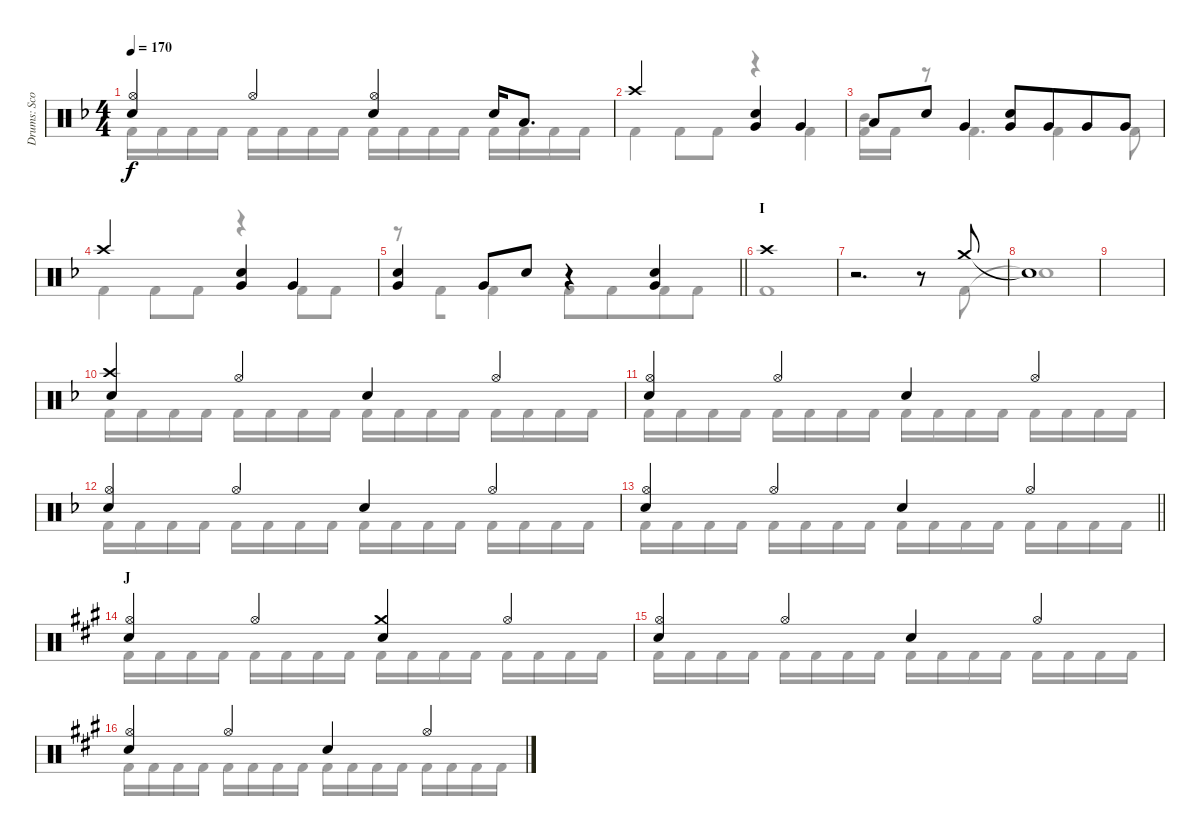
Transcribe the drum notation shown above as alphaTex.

\track ("Drums: Scott" "Drums: Sco") {instrument percussion}
\staff {score}
\articulation defaults
\voice
\ts (4 4)
\tempo 170
\clef neutral
\ks f
("Hi-Hat (open)" "Snare (hit) 2").4{dy f} "Hi-Hat (open)".4 ("Hi-Hat (open)" "Snare (hit) 2").4 "Snare (hit) 2".16 "Low Tom (hit)".8{d} |
"Crash high (hit)".2 ("Snare (hit) 2" "Very Low Tom (hit)").4 "Very Low Tom (hit)".4 |
"Low Tom (hit)".8 "Snare (hit) 2".8 "Very Low Tom (hit)".4 ("Snare (hit) 2" "Very Low Tom (hit)").8 "Very Low Tom (hit)".8{beam merge} "Very Low Tom (hit)".8 "Very Low Tom (hit)".8 |
"Crash high (hit)".2 ("Snare (hit) 2" "Very Low Tom (hit)").4 "Very Low Tom (hit)".4 |
\barLineRight lightlight
("Snare (hit) 2" "Very Low Tom (hit)").4 "Very Low Tom (hit)".8 "Snare (hit) 2".8 r.4 ("Snare (hit) 2" "Very Low Tom (hit)").4 |
\section ("" "I")
"Crash high (hit)".1 |
r.2{d} r.8 "Crash medium (hit)".8 |
"Snare (hit)"{t}.1 |
|
("Crash high (hit)" "Snare (hit) 2").4 "Hi-Hat (open)".4 "Snare (hit) 2".4 "Hi-Hat (open)".4 |
("Hi-Hat (open)" "Snare (hit) 2").4 "Hi-Hat (open)".4 "Snare (hit) 2".4 "Hi-Hat (open)".4 |
("Hi-Hat (open)" "Snare (hit) 2").4 "Hi-Hat (open)".4 "Snare (hit) 2".4 "Hi-Hat (open)".4 |
\barLineRight lightlight
("Hi-Hat (open)" "Snare (hit) 2").4 "Hi-Hat (open)".4 "Snare (hit) 2".4 "Hi-Hat (open)".4 |
\section ("" "J")
\ks a
("Hi-Hat (open)" "Snare (hit) 2").4 "Hi-Hat (open)".4 ("Crash medium (hit)" "Snare (hit) 2").4 "Hi-Hat (open)".4 |
("Hi-Hat (open)" "Snare (hit) 2").4 "Hi-Hat (open)".4 "Snare (hit) 2".4 "Hi-Hat (open)".4 |
("Hi-Hat (open)" "Snare (hit) 2").4 "Hi-Hat (open)".4 "Snare (hit) 2".4 "Hi-Hat (open)".4
\voice
\clef neutral
\ottava regular
\simile none
\ks f "Kick (hit) 2".16{dy f} "Kick (hit) 2".16{beam merge} "Kick (hit) 2".16 "Kick (hit) 2".16 "Kick (hit) 2".16 "Kick (hit) 2".16{beam merge} "Kick (hit) 2".16 "Kick (hit) 2".16 "Kick (hit) 2".16 "Kick (hit) 2".16{beam merge} "Kick (hit) 2".16 "Kick (hit) 2".16 "Kick (hit) 2".16 "Kick (hit) 2".16{beam merge} "Kick (hit) 2".16 "Kick (hit) 2".16
|
"Kick (hit) 2".4 "Kick (hit) 2".8 "Kick (hit) 2".8 r.4 "Kick (hit) 2".4 |
("Mid Tom (hit)" "Kick (hit) 2").16 "Kick (hit) 2".16{beam merge} r.8 "Kick (hit) 2".4{d} "Kick (hit) 2".4 "Kick (hit) 2".8 |
"Kick (hit) 2".4 "Kick (hit) 2".8 "Kick (hit) 2".8 r.4 "Kick (hit) 2".8 "Kick (hit) 2".8 |
\barLineRight lightlight
r.8 "Kick (hit) 2".8{beam merge} "Kick (hit) 2".4 "Kick (hit) 2".8 "Kick (hit) 2".8{beam merge} "Kick (hit) 2".8 "Kick (hit) 2".8 |
"Kick (hit) 2".1 |
r.2{d} r.8 "Kick (hit) 2".8 |
"Snare (hit)"{t}.1 |
|
"Kick (hit) 2".16 "Kick (hit) 2".16{beam merge} "Kick (hit) 2".16 "Kick (hit) 2".16 "Kick (hit) 2".16 "Kick (hit) 2".16{beam merge} "Kick (hit) 2".16 "Kick (hit) 2".16 "Kick (hit) 2".16 "Kick (hit) 2".16{beam merge} "Kick (hit) 2".16 "Kick (hit) 2".16 "Kick (hit) 2".16 "Kick (hit) 2".16{beam merge} "Kick (hit) 2".16 "Kick (hit) 2".16 |
"Kick (hit) 2".16 "Kick (hit) 2".16{beam merge} "Kick (hit) 2".16 "Kick (hit) 2".16 "Kick (hit) 2".16 "Kick (hit) 2".16{beam merge} "Kick (hit) 2".16 "Kick (hit) 2".16 "Kick (hit) 2".16 "Kick (hit) 2".16{beam merge} "Kick (hit) 2".16 "Kick (hit) 2".16 "Kick (hit) 2".16 "Kick (hit) 2".16{beam merge} "Kick (hit) 2".16 "Kick (hit) 2".16 |
"Kick (hit) 2".16 "Kick (hit) 2".16{beam merge} "Kick (hit) 2".16 "Kick (hit) 2".16 "Kick (hit) 2".16 "Kick (hit) 2".16{beam merge} "Kick (hit) 2".16 "Kick (hit) 2".16 "Kick (hit) 2".16 "Kick (hit) 2".16{beam merge} "Kick (hit) 2".16 "Kick (hit) 2".16 "Kick (hit) 2".16 "Kick (hit) 2".16{beam merge} "Kick (hit) 2".16 "Kick (hit) 2".16 |
\barLineRight lightlight "Kick (hit) 2".16 "Kick (hit) 2".16{beam merge} "Kick (hit) 2".16 "Kick (hit) 2".16 "Kick (hit) 2".16 "Kick (hit) 2".16{beam merge} "Kick (hit) 2".16 "Kick (hit) 2".16 "Kick (hit) 2".16 "Kick (hit) 2".16{beam merge} "Kick (hit) 2".16 "Kick (hit) 2".16 "Kick (hit) 2".16 "Kick (hit) 2".16{beam merge} "Kick (hit) 2".16 "Kick (hit) 2".16
|
\ks a "Kick (hit) 2".16 "Kick (hit) 2".16{beam merge} "Kick (hit) 2".16 "Kick (hit) 2".16 "Kick (hit) 2".16 "Kick (hit) 2".16{beam merge} "Kick (hit) 2".16 "Kick (hit) 2".16 "Kick (hit) 2".16 "Kick (hit) 2".16{beam merge} "Kick (hit) 2".16 "Kick (hit) 2".16 "Kick (hit) 2".16 "Kick (hit) 2".16{beam merge} "Kick (hit) 2".16 "Kick (hit) 2".16
|
"Kick (hit) 2".16 "Kick (hit) 2".16{beam merge} "Kick (hit) 2".16 "Kick (hit) 2".16 "Kick (hit) 2".16 "Kick (hit) 2".16{beam merge} "Kick (hit) 2".16 "Kick (hit) 2".16 "Kick (hit) 2".16 "Kick (hit) 2".16{beam merge} "Kick (hit) 2".16 "Kick (hit) 2".16 "Kick (hit) 2".16 "Kick (hit) 2".16{beam merge} "Kick (hit) 2".16 "Kick (hit) 2".16 |
"Kick (hit) 2".16 "Kick (hit) 2".16{beam merge} "Kick (hit) 2".16 "Kick (hit) 2".16 "Kick (hit) 2".16 "Kick (hit) 2".16{beam merge} "Kick (hit) 2".16 "Kick (hit) 2".16 "Kick (hit) 2".16 "Kick (hit) 2".16{beam merge} "Kick (hit) 2".16 "Kick (hit) 2".16 "Kick (hit) 2".16 "Kick (hit) 2".16{beam merge} "Kick (hit) 2".16 "Kick (hit) 2".16
